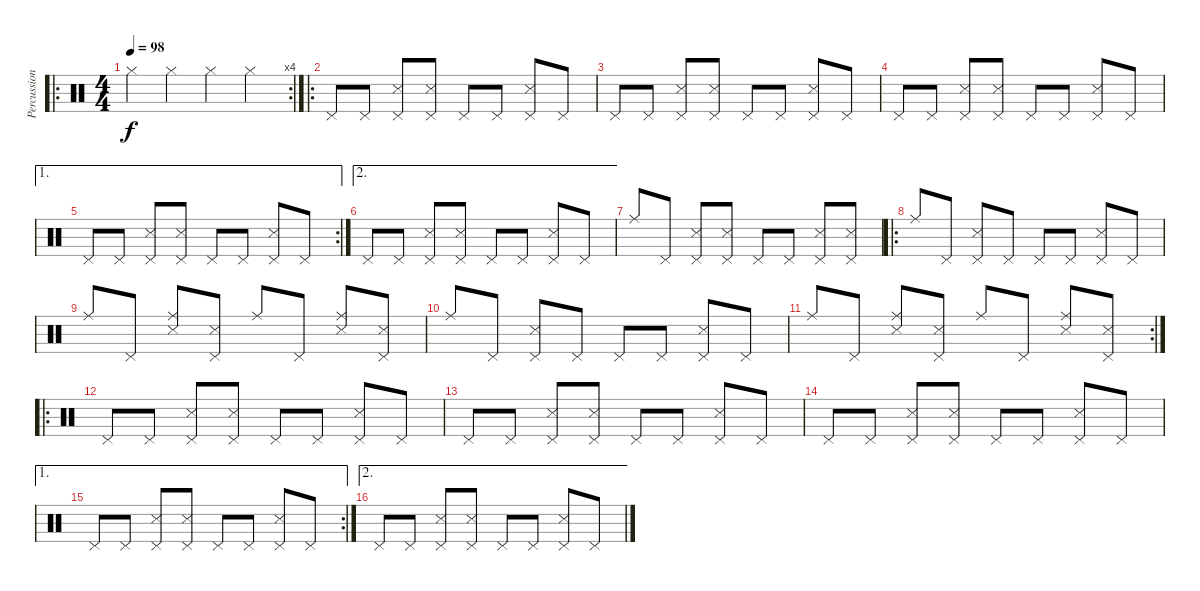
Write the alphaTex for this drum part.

\track ("Percussion" "Percussion") {instrument percussion}
\staff {score}
\articulation defaults
\ro
\rc 4
\ts (4 4)
\tempo 98
\clef neutral
\ks c "Hi-Hat (closed)".4{dy f} "Hi-Hat (closed)".4 "Hi-Hat (closed)".4 "Hi-Hat (closed)".4
|
\ro "Pedal Hi-Hat (hit)".8 "Pedal Hi-Hat (hit)".8
("Pedal Hi-Hat (hit)" "Snare (side stick) 3").8 ("Pedal Hi-Hat (hit)" "Snare (side stick) 3").8 "Pedal Hi-Hat (hit)".8 "Pedal Hi-Hat (hit)".8 ("Pedal Hi-Hat (hit)" "Snare (side stick) 3").8 "Pedal Hi-Hat (hit)".8 |
"Pedal Hi-Hat (hit)".8 "Pedal Hi-Hat (hit)".8 ("Pedal Hi-Hat (hit)" "Snare (side stick) 3").8 ("Pedal Hi-Hat (hit)" "Snare (side stick) 3").8 "Pedal Hi-Hat (hit)".8 "Pedal Hi-Hat (hit)".8 ("Pedal Hi-Hat (hit)" "Snare (side stick) 3").8 "Pedal Hi-Hat (hit)".8 |
"Pedal Hi-Hat (hit)".8 "Pedal Hi-Hat (hit)".8 ("Pedal Hi-Hat (hit)" "Snare (side stick) 3").8 ("Pedal Hi-Hat (hit)" "Snare (side stick) 3").8 "Pedal Hi-Hat (hit)".8 "Pedal Hi-Hat (hit)".8 ("Pedal Hi-Hat (hit)" "Snare (side stick) 3").8 "Pedal Hi-Hat (hit)".8 |
\ae 1
\rc 2 "Pedal Hi-Hat (hit)".8 "Pedal Hi-Hat (hit)".8
("Pedal Hi-Hat (hit)" "Snare (side stick) 3").8 ("Pedal Hi-Hat (hit)" "Snare (side stick) 3").8 "Pedal Hi-Hat (hit)".8 "Pedal Hi-Hat (hit)".8 ("Pedal Hi-Hat (hit)" "Snare (side stick) 3").8 "Pedal Hi-Hat (hit)".8 |
\ae 2 "Pedal Hi-Hat (hit)".8 "Pedal Hi-Hat (hit)".8
("Pedal Hi-Hat (hit)" "Snare (side stick) 3").8 ("Pedal Hi-Hat (hit)" "Snare (side stick) 3").8 "Pedal Hi-Hat (hit)".8 "Pedal Hi-Hat (hit)".8 ("Pedal Hi-Hat (hit)" "Snare (side stick) 3").8 "Pedal Hi-Hat (hit)".8 |
"Ride (middle)".8 "Pedal Hi-Hat (hit)".8 ("Pedal Hi-Hat (hit)" "Snare (side stick) 3").8 ("Pedal Hi-Hat (hit)" "Snare (side stick) 3").8 "Pedal Hi-Hat (hit)".8 "Pedal Hi-Hat (hit)".8 ("Pedal Hi-Hat (hit)" "Snare (side stick) 3").8 ("Pedal Hi-Hat (hit)" "Snare (side stick) 3").8 |
\ro "Ride (middle)".8 "Pedal Hi-Hat (hit)".8
("Pedal Hi-Hat (hit)" "Snare (side stick) 3").8 "Pedal Hi-Hat (hit)".8 "Pedal Hi-Hat (hit)".8 "Pedal Hi-Hat (hit)".8 ("Pedal Hi-Hat (hit)" "Snare (side stick) 3").8 "Pedal Hi-Hat (hit)".8 |
"Ride (middle)".8 "Pedal Hi-Hat (hit)".8 ("Ride (middle)" "Snare (side stick) 3").8 ("Pedal Hi-Hat (hit)" "Snare (side stick) 3").8 "Ride (middle)".8 "Pedal Hi-Hat (hit)".8 ("Ride (middle)" "Snare (side stick) 3").8 ("Pedal Hi-Hat (hit)" "Snare (side stick) 3").8 |
"Ride (middle)".8 "Pedal Hi-Hat (hit)".8 ("Pedal Hi-Hat (hit)" "Snare (side stick) 3").8 "Pedal Hi-Hat (hit)".8 "Pedal Hi-Hat (hit)".8 "Pedal Hi-Hat (hit)".8 ("Pedal Hi-Hat (hit)" "Snare (side stick) 3").8 "Pedal Hi-Hat (hit)".8 |
\rc 2 "Ride (middle)".8 "Pedal Hi-Hat (hit)".8
("Ride (middle)" "Snare (side stick) 3").8 ("Pedal Hi-Hat (hit)" "Snare (side stick) 3").8 "Ride (middle)".8 "Pedal Hi-Hat (hit)".8 ("Ride (middle)" "Snare (side stick) 3").8 ("Pedal Hi-Hat (hit)" "Snare (side stick) 3").8 |
\ro "Pedal Hi-Hat (hit)".8 "Pedal Hi-Hat (hit)".8
("Pedal Hi-Hat (hit)" "Snare (side stick) 3").8 ("Pedal Hi-Hat (hit)" "Snare (side stick) 3").8 "Pedal Hi-Hat (hit)".8 "Pedal Hi-Hat (hit)".8 ("Pedal Hi-Hat (hit)" "Snare (side stick) 3").8 "Pedal Hi-Hat (hit)".8 |
"Pedal Hi-Hat (hit)".8 "Pedal Hi-Hat (hit)".8 ("Pedal Hi-Hat (hit)" "Snare (side stick) 3").8 ("Pedal Hi-Hat (hit)" "Snare (side stick) 3").8 "Pedal Hi-Hat (hit)".8 "Pedal Hi-Hat (hit)".8 ("Pedal Hi-Hat (hit)" "Snare (side stick) 3").8 "Pedal Hi-Hat (hit)".8 |
"Pedal Hi-Hat (hit)".8 "Pedal Hi-Hat (hit)".8 ("Pedal Hi-Hat (hit)" "Snare (side stick) 3").8 ("Pedal Hi-Hat (hit)" "Snare (side stick) 3").8 "Pedal Hi-Hat (hit)".8 "Pedal Hi-Hat (hit)".8 ("Pedal Hi-Hat (hit)" "Snare (side stick) 3").8 "Pedal Hi-Hat (hit)".8 |
\ae 1
\rc 2 "Pedal Hi-Hat (hit)".8 "Pedal Hi-Hat (hit)".8
("Pedal Hi-Hat (hit)" "Snare (side stick) 3").8 ("Pedal Hi-Hat (hit)" "Snare (side stick) 3").8 "Pedal Hi-Hat (hit)".8 "Pedal Hi-Hat (hit)".8 ("Pedal Hi-Hat (hit)" "Snare (side stick) 3").8 "Pedal Hi-Hat (hit)".8 |
\ae 2 "Pedal Hi-Hat (hit)".8 "Pedal Hi-Hat (hit)".8
("Pedal Hi-Hat (hit)" "Snare (side stick) 3").8 ("Pedal Hi-Hat (hit)" "Snare (side stick) 3").8 "Pedal Hi-Hat (hit)".8 "Pedal Hi-Hat (hit)".8 ("Pedal Hi-Hat (hit)" "Snare (side stick) 3").8 "Pedal Hi-Hat (hit)".8
